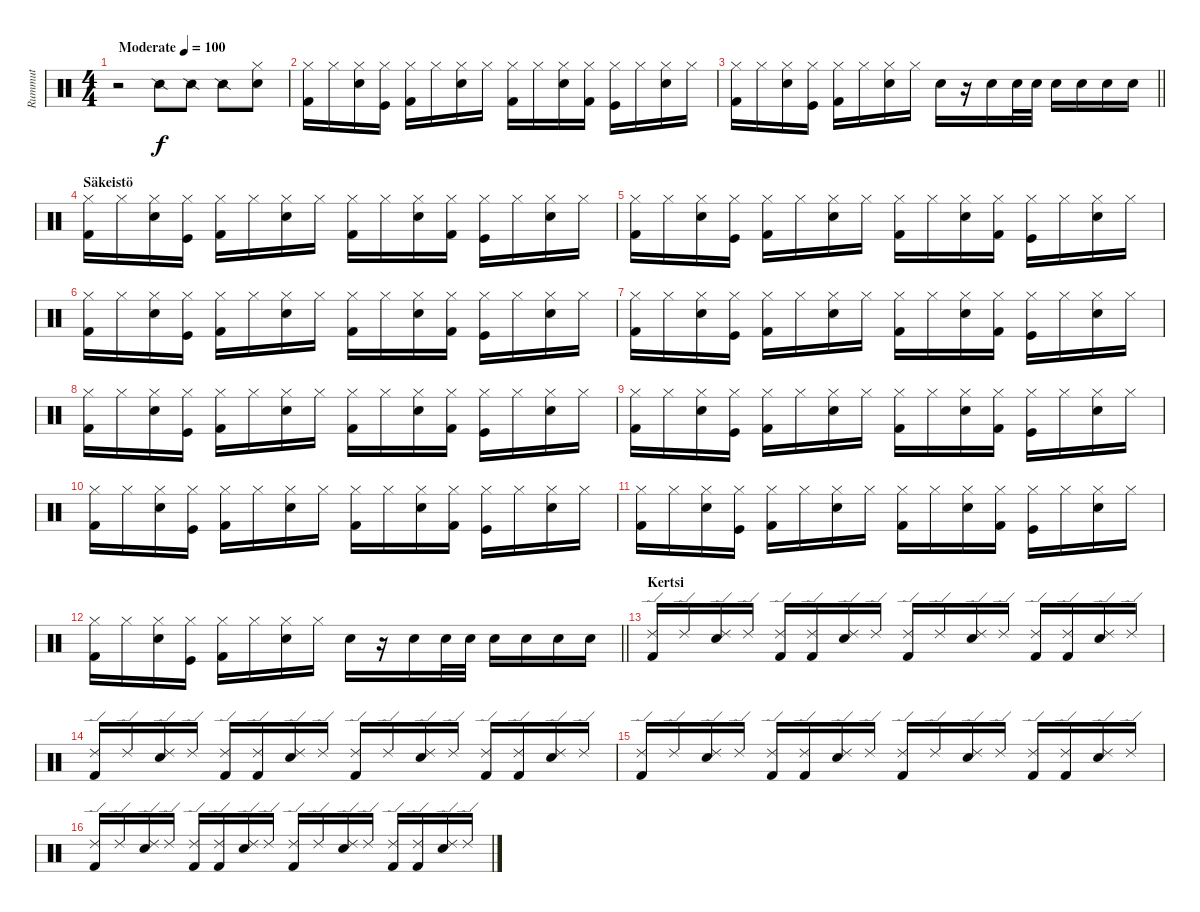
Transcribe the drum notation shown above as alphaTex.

\track ("Rummut" "Rummut") {instrument percussion}
\staff {score}
\articulation defaults
\ts (4 4)
\tempo (100 "Moderate")
\clef neutral
\ks c
r.2{dy f} "Snare (side stick) 2".8 "Snare (side stick) 2".8 "Snare (side stick) 2".8 ("Hi-Hat (closed)" "Snare (hit) 2").8 |
("Hi-Hat (closed)" "Kick (hit) 2").16 "Hi-Hat (closed)".16 ("Hi-Hat (closed)" "Snare (hit) 2").16 ("Hi-Hat (closed)" "Kick (hit)").16 ("Hi-Hat (closed)" "Kick (hit) 2").16 "Hi-Hat (closed)".16 ("Hi-Hat (closed)" "Snare (hit) 2").16 "Hi-Hat (closed)".16 ("Hi-Hat (closed)" "Kick (hit) 2").16 "Hi-Hat (closed)".16 ("Hi-Hat (closed)" "Snare (hit) 2").16 ("Hi-Hat (closed)" "Kick (hit) 2").16 ("Hi-Hat (closed)" "Kick (hit)").16 "Hi-Hat (closed)".16 ("Hi-Hat (closed)" "Snare (hit) 2").16 "Hi-Hat (closed)".16 |
\barLineRight lightlight
("Hi-Hat (closed)" "Kick (hit) 2").16 "Hi-Hat (closed)".16 ("Hi-Hat (closed)" "Snare (hit) 2").16 ("Hi-Hat (closed)" "Kick (hit)").16 ("Hi-Hat (closed)" "Kick (hit) 2").16 "Hi-Hat (closed)".16 ("Hi-Hat (closed)" "Snare (hit) 2").16 "Hi-Hat (closed)".16 "Snare (hit) 2".16 r.16 "Snare (hit) 2".16 "Snare (hit) 2".32 "Snare (hit) 2".32 "Snare (hit) 2".16 "Snare (hit) 2".16 "Snare (hit) 2".16 "Snare (hit) 2".16 |
\section ("" "Säkeistö")
("Hi-Hat (closed)" "Kick (hit) 2").16 "Hi-Hat (closed)".16 ("Hi-Hat (closed)" "Snare (hit) 2").16 ("Hi-Hat (closed)" "Kick (hit)").16 ("Hi-Hat (closed)" "Kick (hit) 2").16 "Hi-Hat (closed)".16 ("Hi-Hat (closed)" "Snare (hit) 2").16 "Hi-Hat (closed)".16 ("Hi-Hat (closed)" "Kick (hit) 2").16 "Hi-Hat (closed)".16 ("Hi-Hat (closed)" "Snare (hit) 2").16 ("Hi-Hat (closed)" "Kick (hit) 2").16 ("Hi-Hat (closed)" "Kick (hit)").16 "Hi-Hat (closed)".16 ("Hi-Hat (closed)" "Snare (hit) 2").16 "Hi-Hat (closed)".16 |
("Hi-Hat (closed)" "Kick (hit) 2").16 "Hi-Hat (closed)".16 ("Hi-Hat (closed)" "Snare (hit) 2").16 ("Hi-Hat (closed)" "Kick (hit)").16 ("Hi-Hat (closed)" "Kick (hit) 2").16 "Hi-Hat (closed)".16 ("Hi-Hat (closed)" "Snare (hit) 2").16 "Hi-Hat (closed)".16 ("Hi-Hat (closed)" "Kick (hit) 2").16 "Hi-Hat (closed)".16 ("Hi-Hat (closed)" "Snare (hit) 2").16 ("Hi-Hat (closed)" "Kick (hit) 2").16 ("Hi-Hat (closed)" "Kick (hit)").16 "Hi-Hat (closed)".16 ("Hi-Hat (closed)" "Snare (hit) 2").16 "Hi-Hat (closed)".16 |
("Hi-Hat (closed)" "Kick (hit) 2").16 "Hi-Hat (closed)".16 ("Hi-Hat (closed)" "Snare (hit) 2").16 ("Hi-Hat (closed)" "Kick (hit)").16 ("Hi-Hat (closed)" "Kick (hit) 2").16 "Hi-Hat (closed)".16 ("Hi-Hat (closed)" "Snare (hit) 2").16 "Hi-Hat (closed)".16 ("Hi-Hat (closed)" "Kick (hit) 2").16 "Hi-Hat (closed)".16 ("Hi-Hat (closed)" "Snare (hit) 2").16 ("Hi-Hat (closed)" "Kick (hit) 2").16 ("Hi-Hat (closed)" "Kick (hit)").16 "Hi-Hat (closed)".16 ("Hi-Hat (closed)" "Snare (hit) 2").16 "Hi-Hat (closed)".16 |
("Hi-Hat (closed)" "Kick (hit) 2").16 "Hi-Hat (closed)".16 ("Hi-Hat (closed)" "Snare (hit) 2").16 ("Hi-Hat (closed)" "Kick (hit)").16 ("Hi-Hat (closed)" "Kick (hit) 2").16 "Hi-Hat (closed)".16 ("Hi-Hat (closed)" "Snare (hit) 2").16 "Hi-Hat (closed)".16 ("Hi-Hat (closed)" "Kick (hit) 2").16 "Hi-Hat (closed)".16 ("Hi-Hat (closed)" "Snare (hit) 2").16 ("Hi-Hat (closed)" "Kick (hit) 2").16 ("Hi-Hat (closed)" "Kick (hit)").16 "Hi-Hat (closed)".16 ("Hi-Hat (closed)" "Snare (hit) 2").16 "Hi-Hat (closed)".16 |
("Hi-Hat (closed)" "Kick (hit) 2").16 "Hi-Hat (closed)".16 ("Hi-Hat (closed)" "Snare (hit) 2").16 ("Hi-Hat (closed)" "Kick (hit)").16 ("Hi-Hat (closed)" "Kick (hit) 2").16 "Hi-Hat (closed)".16 ("Hi-Hat (closed)" "Snare (hit) 2").16 "Hi-Hat (closed)".16 ("Hi-Hat (closed)" "Kick (hit) 2").16 "Hi-Hat (closed)".16 ("Hi-Hat (closed)" "Snare (hit) 2").16 ("Hi-Hat (closed)" "Kick (hit) 2").16 ("Hi-Hat (closed)" "Kick (hit)").16 "Hi-Hat (closed)".16 ("Hi-Hat (closed)" "Snare (hit) 2").16 "Hi-Hat (closed)".16 |
("Hi-Hat (closed)" "Kick (hit) 2").16 "Hi-Hat (closed)".16 ("Hi-Hat (closed)" "Snare (hit) 2").16 ("Hi-Hat (closed)" "Kick (hit)").16 ("Hi-Hat (closed)" "Kick (hit) 2").16 "Hi-Hat (closed)".16 ("Hi-Hat (closed)" "Snare (hit) 2").16 "Hi-Hat (closed)".16 ("Hi-Hat (closed)" "Kick (hit) 2").16 "Hi-Hat (closed)".16 ("Hi-Hat (closed)" "Snare (hit) 2").16 ("Hi-Hat (closed)" "Kick (hit) 2").16 ("Hi-Hat (closed)" "Kick (hit)").16 "Hi-Hat (closed)".16 ("Hi-Hat (closed)" "Snare (hit) 2").16 "Hi-Hat (closed)".16 |
("Hi-Hat (closed)" "Kick (hit) 2").16 "Hi-Hat (closed)".16 ("Hi-Hat (closed)" "Snare (hit) 2").16 ("Hi-Hat (closed)" "Kick (hit)").16 ("Hi-Hat (closed)" "Kick (hit) 2").16 "Hi-Hat (closed)".16 ("Hi-Hat (closed)" "Snare (hit) 2").16 "Hi-Hat (closed)".16 ("Hi-Hat (closed)" "Kick (hit) 2").16 "Hi-Hat (closed)".16 ("Hi-Hat (closed)" "Snare (hit) 2").16 ("Hi-Hat (closed)" "Kick (hit) 2").16 ("Hi-Hat (closed)" "Kick (hit)").16 "Hi-Hat (closed)".16 ("Hi-Hat (closed)" "Snare (hit) 2").16 "Hi-Hat (closed)".16 |
("Hi-Hat (closed)" "Kick (hit) 2").16 "Hi-Hat (closed)".16 ("Hi-Hat (closed)" "Snare (hit) 2").16 ("Hi-Hat (closed)" "Kick (hit)").16 ("Hi-Hat (closed)" "Kick (hit) 2").16 "Hi-Hat (closed)".16 ("Hi-Hat (closed)" "Snare (hit) 2").16 "Hi-Hat (closed)".16 ("Hi-Hat (closed)" "Kick (hit) 2").16 "Hi-Hat (closed)".16 ("Hi-Hat (closed)" "Snare (hit) 2").16 ("Hi-Hat (closed)" "Kick (hit) 2").16 ("Hi-Hat (closed)" "Kick (hit)").16 "Hi-Hat (closed)".16 ("Hi-Hat (closed)" "Snare (hit) 2").16 "Hi-Hat (closed)".16 |
\barLineRight lightlight
("Hi-Hat (closed)" "Kick (hit) 2").16 "Hi-Hat (closed)".16 ("Hi-Hat (closed)" "Snare (hit) 2").16 ("Hi-Hat (closed)" "Kick (hit)").16 ("Hi-Hat (closed)" "Kick (hit) 2").16 "Hi-Hat (closed)".16 ("Hi-Hat (closed)" "Snare (hit) 2").16 "Hi-Hat (closed)".16 "Snare (hit) 2".16 r.16 "Snare (hit) 2".16 "Snare (hit) 2".32 "Snare (hit) 2".32 "Snare (hit) 2".16 "Snare (hit) 2".16 "Snare (hit) 2".16 "Snare (hit) 2".16 |
\section ("" "Kertsi")
("Ride (edge) 2" "Kick (hit) 2").16 "Ride (edge) 2".16 ("Ride (edge) 2" "Snare (hit) 2").16 "Ride (edge) 2".16 ("Ride (edge) 2" "Kick (hit) 2").16 ("Ride (edge) 2" "Kick (hit) 2").16 ("Ride (edge) 2" "Snare (hit) 2").16 "Ride (edge) 2".16 ("Ride (edge) 2" "Kick (hit) 2").16 "Ride (edge) 2".16 ("Ride (edge) 2" "Snare (hit) 2").16 "Ride (edge) 2".16 ("Ride (edge) 2" "Kick (hit) 2").16 ("Ride (edge) 2" "Kick (hit) 2").16 ("Ride (edge) 2" "Snare (hit) 2").16 "Ride (edge) 2".16 |
("Ride (edge) 2" "Kick (hit) 2").16 "Ride (edge) 2".16 ("Ride (edge) 2" "Snare (hit) 2").16 "Ride (edge) 2".16 ("Ride (edge) 2" "Kick (hit) 2").16 ("Ride (edge) 2" "Kick (hit) 2").16 ("Ride (edge) 2" "Snare (hit) 2").16 "Ride (edge) 2".16 ("Ride (edge) 2" "Kick (hit) 2").16 "Ride (edge) 2".16 ("Ride (edge) 2" "Snare (hit) 2").16 "Ride (edge) 2".16 ("Ride (edge) 2" "Kick (hit) 2").16 ("Ride (edge) 2" "Kick (hit) 2").16 ("Ride (edge) 2" "Snare (hit) 2").16 "Ride (edge) 2".16 |
("Ride (edge) 2" "Kick (hit) 2").16 "Ride (edge) 2".16 ("Ride (edge) 2" "Snare (hit) 2").16 "Ride (edge) 2".16 ("Ride (edge) 2" "Kick (hit) 2").16 ("Ride (edge) 2" "Kick (hit) 2").16 ("Ride (edge) 2" "Snare (hit) 2").16 "Ride (edge) 2".16 ("Ride (edge) 2" "Kick (hit) 2").16 "Ride (edge) 2".16 ("Ride (edge) 2" "Snare (hit) 2").16 "Ride (edge) 2".16 ("Ride (edge) 2" "Kick (hit) 2").16 ("Ride (edge) 2" "Kick (hit) 2").16 ("Ride (edge) 2" "Snare (hit) 2").16 "Ride (edge) 2".16 |
("Ride (edge) 2" "Kick (hit) 2").16 "Ride (edge) 2".16 ("Ride (edge) 2" "Snare (hit) 2").16 "Ride (edge) 2".16 ("Ride (edge) 2" "Kick (hit) 2").16 ("Ride (edge) 2" "Kick (hit) 2").16 ("Ride (edge) 2" "Snare (hit) 2").16 "Ride (edge) 2".16 ("Ride (edge) 2" "Kick (hit) 2").16 "Ride (edge) 2".16 ("Ride (edge) 2" "Snare (hit) 2").16 "Ride (edge) 2".16 ("Ride (edge) 2" "Kick (hit) 2").16 ("Ride (edge) 2" "Kick (hit) 2").16 ("Ride (edge) 2" "Snare (hit) 2").16 "Ride (edge) 2".16
